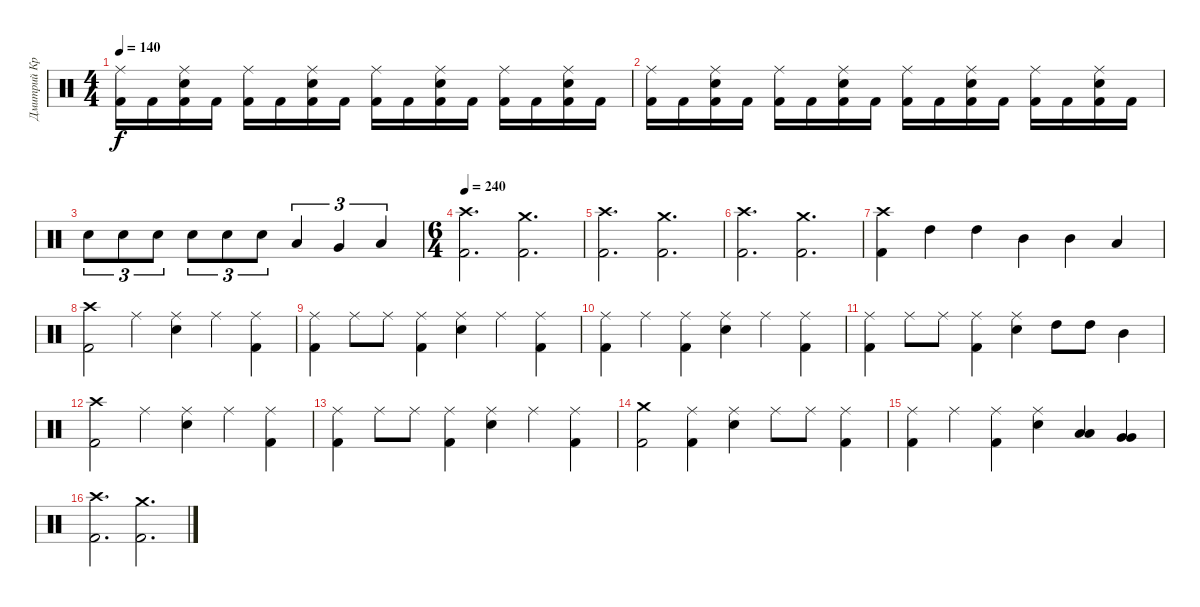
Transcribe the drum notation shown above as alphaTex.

\track ("Дмитрий Кривенков" "Дмитрий Кр") {instrument percussion}
\staff {score}
\articulation defaults
\ts (4 4)
\tempo 140
\clef neutral
\ks c
("Ride (middle)" "Kick (hit) 2").16{dy f} "Kick (hit) 2".16 ("Ride (middle)" "Electric Snare (hit)" "Kick (hit) 2").16 "Kick (hit) 2".16 ("Ride (middle)" "Kick (hit) 2").16 "Kick (hit) 2".16 ("Ride (middle)" "Electric Snare (hit)" "Kick (hit) 2").16 "Kick (hit) 2".16 ("Ride (middle)" "Kick (hit) 2").16 "Kick (hit) 2".16 ("Ride (middle)" "Electric Snare (hit)" "Kick (hit) 2").16 "Kick (hit) 2".16 ("Ride (middle)" "Kick (hit) 2").16 "Kick (hit) 2".16 ("Ride (middle)" "Electric Snare (hit)" "Kick (hit) 2").16 "Kick (hit) 2".16 |
("Ride (middle)" "Kick (hit) 2").16 "Kick (hit) 2".16 ("Ride (middle)" "Electric Snare (hit)" "Kick (hit) 2").16 "Kick (hit) 2".16 ("Ride (middle)" "Kick (hit) 2").16 "Kick (hit) 2".16 ("Ride (middle)" "Electric Snare (hit)" "Kick (hit) 2").16 "Kick (hit) 2".16 ("Ride (middle)" "Kick (hit) 2").16 "Kick (hit) 2".16 ("Ride (middle)" "Electric Snare (hit)" "Kick (hit) 2").16 "Kick (hit) 2".16 ("Ride (middle)" "Kick (hit) 2").16 "Kick (hit) 2".16 ("Ride (middle)" "Electric Snare (hit)" "Kick (hit) 2").16 "Kick (hit) 2".16 |
"Electric Snare (hit)".8{tu (3 2)} "Electric Snare (hit)".8{tu (3 2)} "Electric Snare (hit)".8{tu (3 2)} "Electric Snare (hit)".8{tu (3 2)} "Electric Snare (hit)".8{tu (3 2)} "Electric Snare (hit)".8{tu (3 2)} "Low Tom (hit)".4{tu (3 2)} "Very Low Tom (hit)".4{tu (3 2)} "Low Floor Tom (hit)".4{tu (3 2)} |
\ts (6 4)
\tempo 240
("Crash high (hit)" "Kick (hit) 2").2{d} ("Crash medium (hit)" "Kick (hit) 2").2{d} |
("Crash high (hit)" "Kick (hit) 2").2{d} ("Crash medium (hit)" "Kick (hit) 2").2{d} |
("Crash high (hit)" "Kick (hit) 2").2{d} ("Crash medium (hit)" "Kick (hit) 2").2{d} |
("Crash high (hit)" "Kick (hit) 2").4 "High Tom (hit)".4 "High Tom (hit)".4 "Mid Tom (hit)".4 "Mid Tom (hit)".4 "Low Tom (hit)".4 |
("Crash high (hit)" "Kick (hit) 2").2 "Ride (middle)".4 ("Ride (middle)" "Electric Snare (hit)").4 "Ride (middle)".4 ("Ride (middle)" "Kick (hit) 2").4 |
("Ride (middle)" "Kick (hit) 2").4 "Ride (middle)".8 "Ride (middle)".8 ("Ride (middle)" "Kick (hit) 2").4 ("Ride (middle)" "Electric Snare (hit)").4 "Ride (middle)".4 ("Ride (middle)" "Kick (hit) 2").4 |
("Ride (middle)" "Kick (hit) 2").4 "Ride (middle)".4 ("Ride (middle)" "Kick (hit) 2").4 ("Ride (middle)" "Electric Snare (hit)").4 "Ride (middle)".4 ("Ride (middle)" "Kick (hit) 2").4 |
("Ride (middle)" "Kick (hit) 2").4 "Ride (middle)".8 "Ride (middle)".8 ("Ride (middle)" "Kick (hit) 2").4 ("Ride (middle)" "Electric Snare (hit)").4 "High Tom (hit)".8 "High Tom (hit)".8 "Mid Tom (hit)".4 |
("Crash high (hit)" "Kick (hit) 2").2 "Ride (middle)".4 ("Ride (middle)" "Electric Snare (hit)").4 "Ride (middle)".4 ("Ride (middle)" "Kick (hit) 2").4 |
("Ride (middle)" "Kick (hit) 2").4 "Ride (middle)".8 "Ride (middle)".8 ("Ride (middle)" "Kick (hit) 2").4 ("Ride (middle)" "Electric Snare (hit)").4 "Ride (middle)".4 ("Ride (middle)" "Kick (hit) 2").4 |
("Crash medium (hit)" "Kick (hit) 2").2 ("Ride (middle)" "Kick (hit) 2").4 ("Ride (middle)" "Electric Snare (hit)").4 "Ride (middle)".8 "Ride (middle)".8 ("Ride (middle)" "Kick (hit) 2").4 |
("Ride (middle)" "Kick (hit) 2").4 "Ride (middle)".4 ("Ride (middle)" "Kick (hit) 2").4 ("Ride (middle)" "Electric Snare (hit)").4 ("Low Tom (hit)" "Low Tom (hit)").4 ("Very Low Tom (hit)" "Very Low Tom (hit)").4 |
("Crash high (hit)" "Kick (hit) 2").2{d} ("Crash medium (hit)" "Kick (hit) 2").2{d}
